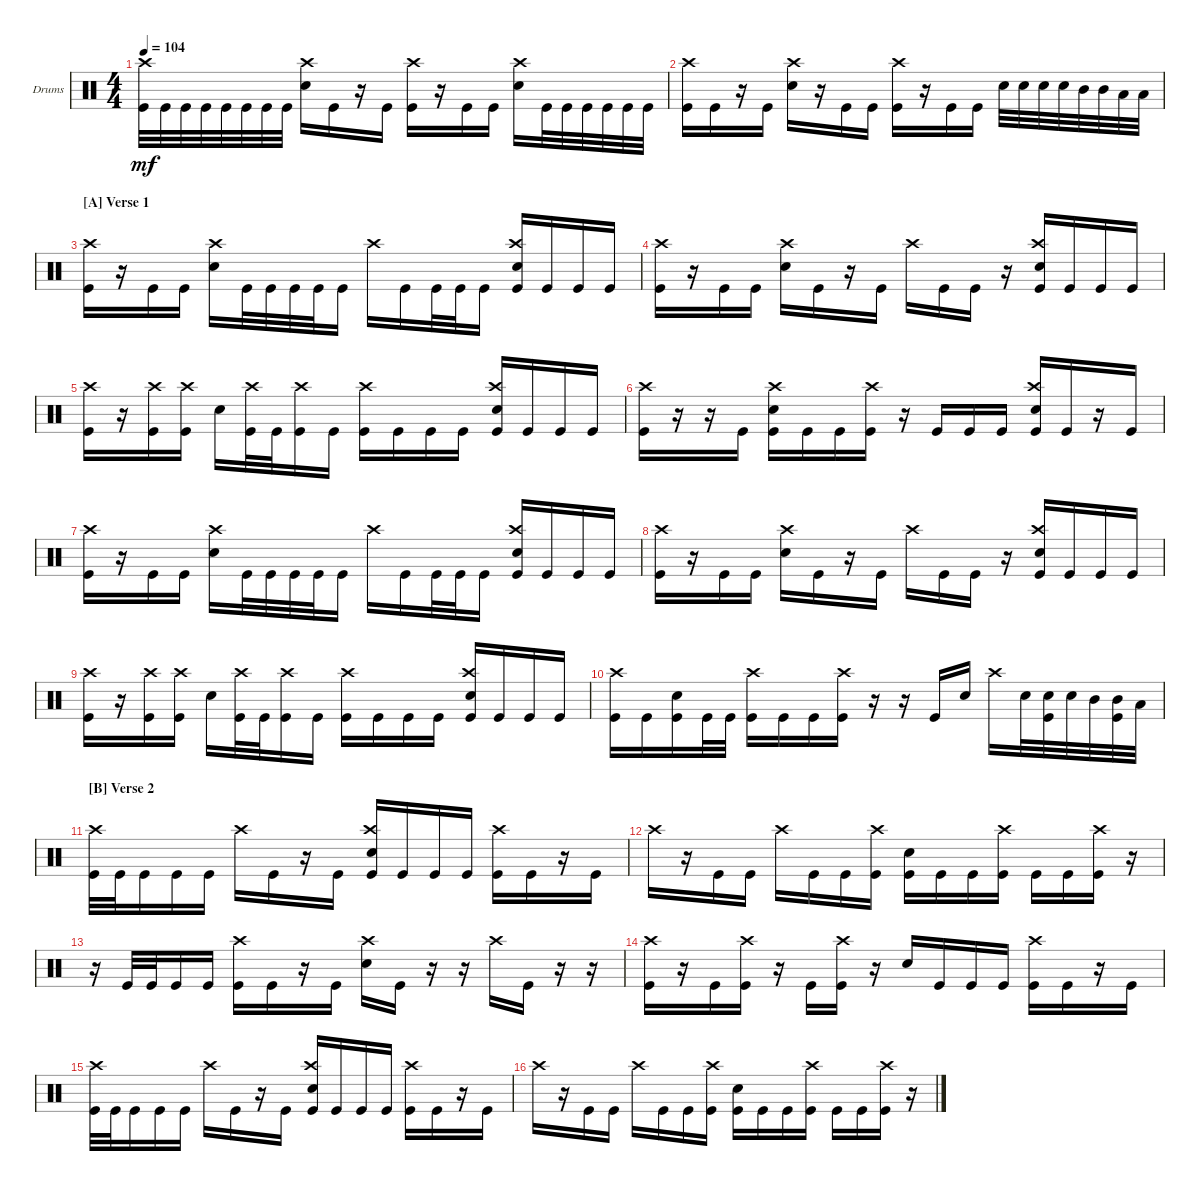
\bracketExtendMode groupsimilarinstruments
\firstSystemTrackNameOrientation horizontal
\otherSystemsTrackNameOrientation horizontal
\track ("Drumkit" "Drums") {instrument percussion}
\staff {score}
\articulation defaults
\ts (4 4)
\tempo 104
\clef neutral
\ks c
("Kick (hit)" "Crash high (hit)").32{dy mf} "Kick (hit)".32 "Kick (hit)".32 "Kick (hit)".32 "Kick (hit)".32 "Kick (hit)".32 "Kick (hit)".32 "Kick (hit)".32 ("Snare (hit) 2" "Crash high (hit)").16 "Kick (hit)".16 r.16 "Kick (hit)".16 ("Kick (hit)" "Crash high (hit)").16 r.16 "Kick (hit)".16 "Kick (hit)".16 ("Snare (hit) 2" "Crash high (hit)").16 "Kick (hit)".32 "Kick (hit)".32 "Kick (hit)".32 "Kick (hit)".32 "Kick (hit)".32 "Kick (hit)".32 |
("Kick (hit)" "Crash high (hit)").16 "Kick (hit)".16 r.16 "Kick (hit)".16 ("Snare (hit) 2" "Crash high (hit)").16 r.16 "Kick (hit)".16 "Kick (hit)".16 ("Kick (hit)" "Crash high (hit)").16 r.16 "Kick (hit)".16 "Kick (hit)".16 "Snare (hit) 2".32 "Snare (hit) 2".32 "Snare (hit) 2".32 "Snare (hit) 2".32 "Mid Tom (hit)".32 "Mid Tom (hit)".32 "Low Tom (hit)".32 "Low Tom (hit)".32 |
\section ("A" "Verse 1")
("Kick (hit)" "Crash high (hit)").16 r.16 "Kick (hit)".16 "Kick (hit)".16 ("Snare (hit) 2" "Crash high (hit)").16 "Kick (hit)".32 "Kick (hit)".32 "Kick (hit)".32 "Kick (hit)".32 "Kick (hit)".16 "Crash high (hit)".16 "Kick (hit)".16 "Kick (hit)".32 "Kick (hit)".32 "Kick (hit)".16 ("Snare (hit) 2" "Kick (hit)" "Crash high (hit)").16 "Kick (hit)".16 "Kick (hit)".16 "Kick (hit)".16 |
("Kick (hit)" "Crash high (hit)").16 r.16 "Kick (hit)".16 "Kick (hit)".16 ("Snare (hit) 2" "Crash high (hit)").16 "Kick (hit)".16 r.16 "Kick (hit)".16 "Crash high (hit)".16 "Kick (hit)".16 "Kick (hit)".16 r.16 ("Snare (hit) 2" "Kick (hit)" "Crash high (hit)").16 "Kick (hit)".16 "Kick (hit)".16 "Kick (hit)".16 |
("Kick (hit)" "Crash high (hit)").16 r.16 ("Kick (hit)" "Crash high (hit)").16 ("Kick (hit)" "Crash high (hit)").16 "Snare (hit) 2".16 ("Kick (hit)" "Crash high (hit)").32 "Kick (hit)".32 ("Kick (hit)" "Crash high (hit)").16 "Kick (hit)".16 ("Kick (hit)" "Crash high (hit)").16 "Kick (hit)".16 "Kick (hit)".16 "Kick (hit)".16 ("Snare (hit) 2" "Kick (hit)" "Crash high (hit)").16 "Kick (hit)".16 "Kick (hit)".16 "Kick (hit)".16 |
("Kick (hit)" "Crash high (hit)").16 r.16 r.16 "Kick (hit)".16 ("Snare (hit) 2" "Kick (hit)" "Crash high (hit)").16 "Kick (hit)".16 "Kick (hit)".16 ("Kick (hit)" "Crash high (hit)").16 r.16 "Kick (hit)".16 "Kick (hit)".16 "Kick (hit)".16 ("Snare (hit) 2" "Kick (hit)" "Crash high (hit)").16 "Kick (hit)".16 r.16 "Kick (hit)".16 |
("Kick (hit)" "Crash high (hit)").16 r.16 "Kick (hit)".16 "Kick (hit)".16 ("Snare (hit) 2" "Crash high (hit)").16 "Kick (hit)".32 "Kick (hit)".32 "Kick (hit)".32 "Kick (hit)".32 "Kick (hit)".16 "Crash high (hit)".16 "Kick (hit)".16 "Kick (hit)".32 "Kick (hit)".32 "Kick (hit)".16 ("Snare (hit) 2" "Kick (hit)" "Crash high (hit)").16 "Kick (hit)".16 "Kick (hit)".16 "Kick (hit)".16 |
("Kick (hit)" "Crash high (hit)").16 r.16 "Kick (hit)".16 "Kick (hit)".16 ("Snare (hit) 2" "Crash high (hit)").16 "Kick (hit)".16 r.16 "Kick (hit)".16 "Crash high (hit)".16 "Kick (hit)".16 "Kick (hit)".16 r.16 ("Snare (hit) 2" "Kick (hit)" "Crash high (hit)").16 "Kick (hit)".16 "Kick (hit)".16 "Kick (hit)".16 |
("Kick (hit)" "Crash high (hit)").16 r.16 ("Kick (hit)" "Crash high (hit)").16 ("Kick (hit)" "Crash high (hit)").16 "Snare (hit) 2".16 ("Kick (hit)" "Crash high (hit)").32 "Kick (hit)".32 ("Kick (hit)" "Crash high (hit)").16 "Kick (hit)".16 ("Kick (hit)" "Crash high (hit)").16 "Kick (hit)".16 "Kick (hit)".16 "Kick (hit)".16 ("Snare (hit) 2" "Kick (hit)" "Crash high (hit)").16 "Kick (hit)".16 "Kick (hit)".16 "Kick (hit)".16 |
("Kick (hit)" "Crash high (hit)").16 "Kick (hit)".16 ("Kick (hit)" "Snare (hit) 2").16 "Kick (hit)".32 "Kick (hit)".32 ("Kick (hit)" "Crash high (hit)").16 "Kick (hit)".16 "Kick (hit)".16 ("Kick (hit)" "Crash high (hit)").16 r.16 r.16 "Kick (hit)".16 "Snare (hit) 2".16 "Crash high (hit)".16 "Snare (hit) 2".32 ("Snare (hit) 2" "Kick (hit)").32 "Snare (hit) 2".32 "Mid Tom (hit)".32 ("Kick (hit)" "Mid Tom (hit)").32 "Low Tom (hit)".32 |
\section ("B" "Verse 2")
("Kick (hit)" "Crash high (hit)").32 "Kick (hit)".32 "Kick (hit)".16 "Kick (hit)".16 "Kick (hit)".16 "Crash high (hit)".16 "Kick (hit)".16 r.16 "Kick (hit)".16 ("Snare (hit) 2" "Kick (hit)" "Crash high (hit)").16 "Kick (hit)".16 "Kick (hit)".16 "Kick (hit)".16 ("Kick (hit)" "Crash high (hit)").16 "Kick (hit)".16 r.16 "Kick (hit)".16 |
"Crash high (hit)".16 r.16 "Kick (hit)".16 "Kick (hit)".16 "Crash high (hit)".16 "Kick (hit)".16 "Kick (hit)".16 ("Kick (hit)" "Crash high (hit)").16 ("Snare (hit) 2" "Kick (hit)").16 "Kick (hit)".16 "Kick (hit)".16 ("Kick (hit)" "Crash high (hit)").16 "Kick (hit)".16 "Kick (hit)".16 ("Kick (hit)" "Crash high (hit)").16 r.16 |
r.16 "Kick (hit)".32 "Kick (hit)".32 "Kick (hit)".16 "Kick (hit)".16 ("Kick (hit)" "Crash high (hit)").16 "Kick (hit)".16 r.16 "Kick (hit)".16 ("Snare (hit) 2" "Crash high (hit)").16 "Kick (hit)".16 r.16 r.16 "Crash high (hit)".16 "Kick (hit)".16 r.16 r.16 |
("Kick (hit)" "Crash high (hit)").16 r.16 "Kick (hit)".16 ("Kick (hit)" "Crash high (hit)").16 r.16 "Kick (hit)".16 ("Kick (hit)" "Crash high (hit)").16 r.16 "Snare (hit) 2".16 "Kick (hit)".16 "Kick (hit)".16 "Kick (hit)".16 ("Kick (hit)" "Crash high (hit)").16 "Kick (hit)".16 r.16 "Kick (hit)".16 |
("Kick (hit)" "Crash high (hit)").32 "Kick (hit)".32 "Kick (hit)".16 "Kick (hit)".16 "Kick (hit)".16 "Crash high (hit)".16 "Kick (hit)".16 r.16 "Kick (hit)".16 ("Snare (hit) 2" "Kick (hit)" "Crash high (hit)").16 "Kick (hit)".16 "Kick (hit)".16 "Kick (hit)".16 ("Kick (hit)" "Crash high (hit)").16 "Kick (hit)".16 r.16 "Kick (hit)".16 |
"Crash high (hit)".16 r.16 "Kick (hit)".16 "Kick (hit)".16 "Crash high (hit)".16 "Kick (hit)".16 "Kick (hit)".16 ("Kick (hit)" "Crash high (hit)").16 ("Snare (hit) 2" "Kick (hit)").16 "Kick (hit)".16 "Kick (hit)".16 ("Kick (hit)" "Crash high (hit)").16 "Kick (hit)".16 "Kick (hit)".16 ("Kick (hit)" "Crash high (hit)").16 r.16
